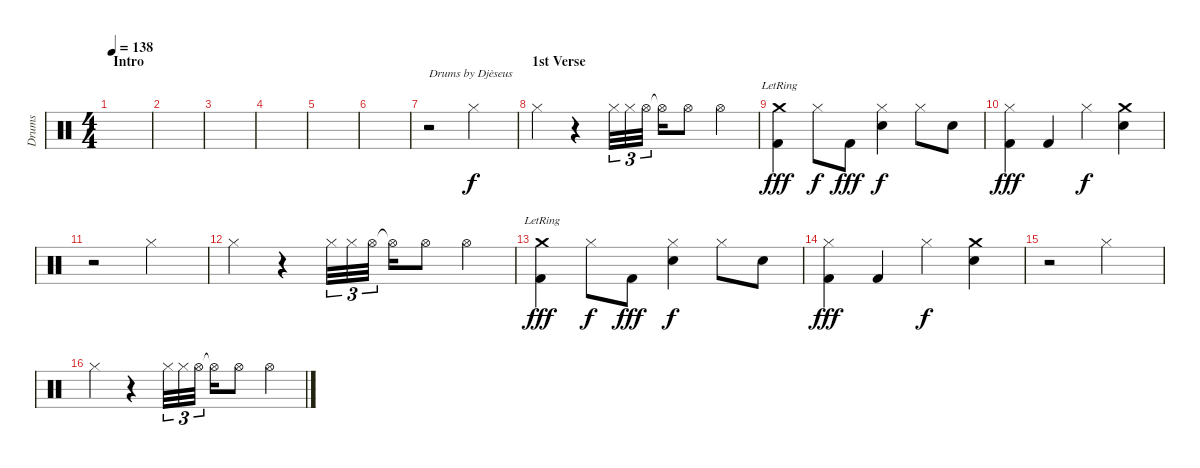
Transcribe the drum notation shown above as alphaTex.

\track ("Drums" "Drums") {instrument percussion}
\staff {score}
\articulation defaults
\ts (4 4)
\section ("" "Intro")
\tempo 138
\clef neutral
\ks c
|
|
|
|
|
|
r.2{txt "Drums by Djèseus"} "Hi-Hat (closed)".2 |
\section ("" "1st Verse")
"Hi-Hat (closed)".4 r.4 "Hi-Hat (closed)".32{tu (3 2)} "Hi-Hat (closed)".32{tu (3 2)} "Hi-Hat (open)".32{tu (3 2)} "Hi-Hat (open)"{t}.16 "Hi-Hat (open)".8 "Hi-Hat (open)".4 |
("Crash medium (hit)"{lr} "Kick (hit) 2").4{dy fff} "Hi-Hat (closed)".8{dy f} "Kick (hit) 2".8{dy fff} ("Hi-Hat (closed)" "Snare (hit) 2").4{dy f} "Hi-Hat (closed)".8 "Snare (hit) 2".8 |
("Hi-Hat (closed)" "Kick (hit) 2").4{dy fff} "Kick (hit) 2".4 "Hi-Hat (closed)".4{dy f} ("Crash medium (hit)" "Snare (hit) 2").4 |
r.2 "Hi-Hat (closed)".2 |
"Hi-Hat (closed)".4 r.4 "Hi-Hat (closed)".32{tu (3 2)} "Hi-Hat (closed)".32{tu (3 2)} "Hi-Hat (open)".32{tu (3 2)} "Hi-Hat (open)"{t}.16 "Hi-Hat (open)".8 "Hi-Hat (open)".4 |
("Crash medium (hit)"{lr} "Kick (hit) 2").4{dy fff} "Hi-Hat (closed)".8{dy f} "Kick (hit) 2".8{dy fff} ("Hi-Hat (closed)" "Snare (hit) 2").4{dy f} "Hi-Hat (closed)".8 "Snare (hit) 2".8 |
("Hi-Hat (closed)" "Kick (hit) 2").4{dy fff} "Kick (hit) 2".4 "Hi-Hat (closed)".4{dy f} ("Crash medium (hit)" "Snare (hit) 2").4 |
r.2 "Hi-Hat (closed)".2 |
"Hi-Hat (closed)".4 r.4 "Hi-Hat (closed)".32{tu (3 2)} "Hi-Hat (closed)".32{tu (3 2)} "Hi-Hat (open)".32{tu (3 2)} "Hi-Hat (open)"{t}.16 "Hi-Hat (open)".8 "Hi-Hat (open)".4
